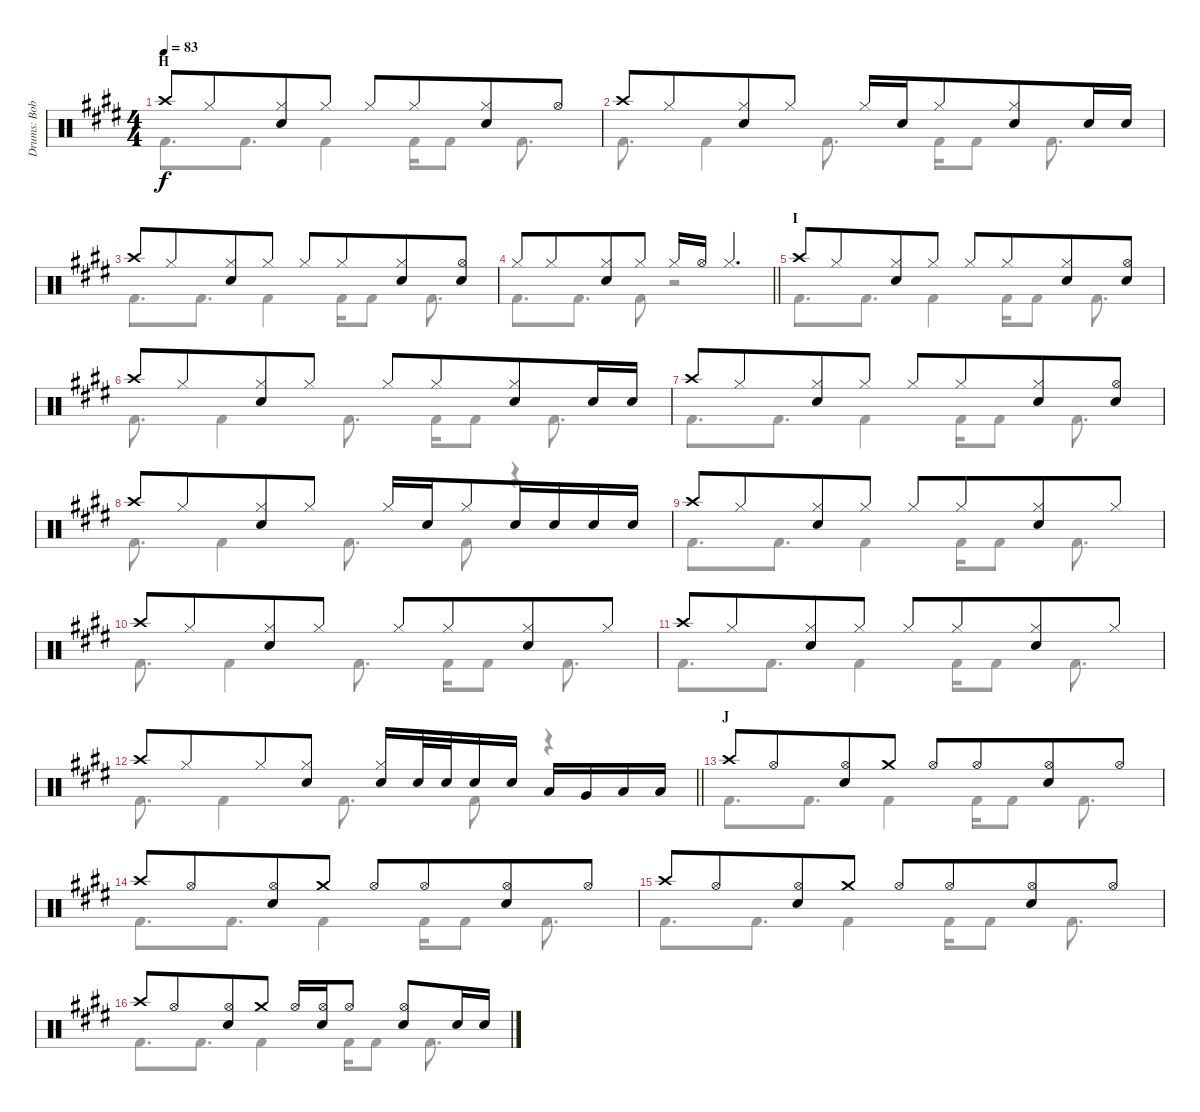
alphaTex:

\track ("Drums: Bobby" "Drums: Bob") {instrument percussion}
\staff {score}
\articulation defaults
\voice
\ts (4 4)
\section ("" "H")
\tempo 83
\clef neutral
\ks e "Crash high (hit)".8{dy f} "Hi-Hat (closed)".8{beam merge}
("Hi-Hat (closed)" "Snare (hit) 2").8 "Hi-Hat (closed)".8 "Hi-Hat (closed)".8 "Hi-Hat (closed)".8{beam merge} ("Hi-Hat (closed)" "Snare (hit) 2").8 "Hi-Hat (open)".8 |
"Crash high (hit)".8 "Hi-Hat (closed)".8{beam merge} ("Hi-Hat (closed)" "Snare (hit) 2").8 "Hi-Hat (closed)".8 "Hi-Hat (closed)".16 "Snare (hit) 2".16{beam merge} "Hi-Hat (closed)".8{beam merge} ("Hi-Hat (closed)" "Snare (hit) 2").8 "Snare (hit) 2".16 "Snare (hit) 2".16 |
"Crash high (hit)".8 "Hi-Hat (closed)".8{beam merge} ("Hi-Hat (closed)" "Snare (hit) 2").8 "Hi-Hat (closed)".8 "Hi-Hat (closed)".8 "Hi-Hat (closed)".8{beam merge} ("Hi-Hat (closed)" "Snare (hit) 2").8 ("Hi-Hat (open)" "Snare (hit) 2").8 |
\barLineRight lightlight "Hi-Hat (closed)".8 "Hi-Hat (closed)".8{beam merge}
("Hi-Hat (closed)" "Snare (hit) 2").8 "Hi-Hat (closed)".8 "Hi-Hat (closed)".16 "Hi-Hat (open)".16 "Hi-Hat (closed)".4{d} |
\section ("" "I")
"Crash high (hit)".8 "Hi-Hat (closed)".8{beam merge} ("Hi-Hat (closed)" "Snare (hit) 2").8 "Hi-Hat (closed)".8 "Hi-Hat (closed)".8 "Hi-Hat (closed)".8{beam merge} ("Hi-Hat (closed)" "Snare (hit) 2").8 ("Hi-Hat (open)" "Snare (hit) 2").8 |
"Crash high (hit)".8 "Hi-Hat (closed)".8{beam merge} ("Hi-Hat (closed)" "Snare (hit) 2").8 "Hi-Hat (closed)".8 "Hi-Hat (closed)".8 "Hi-Hat (closed)".8{beam merge} ("Hi-Hat (closed)" "Snare (hit) 2").8 "Snare (hit) 2".16 "Snare (hit) 2".16 |
"Crash high (hit)".8 "Hi-Hat (closed)".8{beam merge} ("Hi-Hat (closed)" "Snare (hit) 2").8 "Hi-Hat (closed)".8 "Hi-Hat (closed)".8 "Hi-Hat (closed)".8{beam merge} ("Hi-Hat (closed)" "Snare (hit) 2").8 ("Hi-Hat (open)" "Snare (hit) 2").8 |
"Crash high (hit)".8 "Hi-Hat (closed)".8{beam merge} ("Hi-Hat (closed)" "Snare (hit) 2").8 "Hi-Hat (closed)".8 "Hi-Hat (closed)".16 "Snare (hit) 2".16 "Hi-Hat (closed)".8{beam merge} "Snare (hit) 2".16 "Snare (hit) 2".16 "Snare (hit) 2".16 "Snare (hit) 2".16 |
"Crash high (hit)".8 "Hi-Hat (closed)".8{beam merge} ("Hi-Hat (closed)" "Snare (hit) 2").8 "Hi-Hat (closed)".8 "Hi-Hat (closed)".8 "Hi-Hat (closed)".8{beam merge} ("Hi-Hat (closed)" "Snare (hit) 2").8 "Hi-Hat (closed)".8 |
"Crash high (hit)".8 "Hi-Hat (closed)".8{beam merge} ("Hi-Hat (closed)" "Snare (hit) 2").8 "Hi-Hat (closed)".8 "Hi-Hat (closed)".8 "Hi-Hat (closed)".8{beam merge} ("Hi-Hat (closed)" "Snare (hit) 2").8 "Hi-Hat (closed)".8 |
"Crash high (hit)".8 "Hi-Hat (closed)".8{beam merge} ("Hi-Hat (closed)" "Snare (hit) 2").8 "Hi-Hat (closed)".8 "Hi-Hat (closed)".8 "Hi-Hat (closed)".8{beam merge} ("Hi-Hat (closed)" "Snare (hit) 2").8 "Hi-Hat (closed)".8 |
\barLineRight lightlight "Crash high (hit)".8 "Hi-Hat (closed)".8{beam merge} "Hi-Hat (closed)".8
("Hi-Hat (closed)" "Snare (hit) 2").8 ("Hi-Hat (closed)" "Snare (hit) 2").16 "Snare (hit) 2".32 "Snare (hit) 2".32{beam merge} "Snare (hit) 2".16 "Snare (hit) 2".16 "Low Tom (hit)".16 "Very Low Tom (hit)".16 "Low Tom (hit)".16 "Low Tom (hit)".16 |
\section ("" "J")
"Crash high (hit)".8 "Hi-Hat (open)".8{beam merge} ("Hi-Hat (open)" "Snare (hit) 2").8 "Crash medium (hit)".8 "Hi-Hat (open)".8 "Hi-Hat (open)".8{beam merge} ("Hi-Hat (open)" "Snare (hit) 2").8 "Hi-Hat (open)".8 |
"Crash high (hit)".8 "Hi-Hat (open)".8{beam merge} ("Hi-Hat (open)" "Snare (hit) 2").8 "Crash medium (hit)".8 "Hi-Hat (open)".8 "Hi-Hat (open)".8{beam merge} ("Hi-Hat (open)" "Snare (hit) 2").8 "Hi-Hat (open)".8 |
"Crash high (hit)".8 "Hi-Hat (open)".8{beam merge} ("Hi-Hat (open)" "Snare (hit) 2").8 "Crash medium (hit)".8 "Hi-Hat (open)".8 "Hi-Hat (open)".8{beam merge} ("Hi-Hat (open)" "Snare (hit) 2").8 "Hi-Hat (open)".8 |
"Crash high (hit)".8 "Hi-Hat (open)".8{beam merge} ("Hi-Hat (open)" "Snare (hit) 2").8 "Crash medium (hit)".8 "Hi-Hat (open)".16{beam merge} ("Hi-Hat (open)" "Snare (hit) 2").16 "Hi-Hat (open)".8 ("Hi-Hat (open)" "Snare (hit) 2").8 "Snare (hit) 2".16 "Snare (hit) 2".16
\voice
\clef neutral
\ottava regular
\simile none
\ks e "Kick (hit) 2".8{d dy f} "Kick (hit) 2".8{d} "Kick (hit) 2".4 "Kick (hit) 2".16 "Kick (hit) 2".8 "Kick (hit) 2".8{d}
|
"Kick (hit) 2".8{d} "Kick (hit) 2".4 "Kick (hit) 2".8{d} "Kick (hit) 2".16 "Kick (hit) 2".8 "Kick (hit) 2".8{d} |
"Kick (hit) 2".8{d} "Kick (hit) 2".8{d} "Kick (hit) 2".4 "Kick (hit) 2".16 "Kick (hit) 2".8 "Kick (hit) 2".8{d} |
\barLineRight lightlight "Kick (hit) 2".8{d} "Kick (hit) 2".8{d} "Kick (hit) 2".8
r.2 |
"Kick (hit) 2".8{d} "Kick (hit) 2".8{d} "Kick (hit) 2".4 "Kick (hit) 2".16 "Kick (hit) 2".8 "Kick (hit) 2".8{d} |
"Kick (hit) 2".8{d} "Kick (hit) 2".4 "Kick (hit) 2".8{d} "Kick (hit) 2".16 "Kick (hit) 2".8 "Kick (hit) 2".8{d} |
"Kick (hit) 2".8{d} "Kick (hit) 2".8{d} "Kick (hit) 2".4 "Kick (hit) 2".16 "Kick (hit) 2".8 "Kick (hit) 2".8{d} |
"Kick (hit) 2".8{d} "Kick (hit) 2".4 "Kick (hit) 2".8{d} "Kick (hit) 2".8 r.4 |
"Kick (hit) 2".8{d} "Kick (hit) 2".8{d} "Kick (hit) 2".4 "Kick (hit) 2".16 "Kick (hit) 2".8 "Kick (hit) 2".8{d} |
"Kick (hit) 2".8{d} "Kick (hit) 2".4 "Kick (hit) 2".8{d} "Kick (hit) 2".16 "Kick (hit) 2".8 "Kick (hit) 2".8{d} |
"Kick (hit) 2".8{d} "Kick (hit) 2".8{d} "Kick (hit) 2".4 "Kick (hit) 2".16 "Kick (hit) 2".8 "Kick (hit) 2".8{d} |
\barLineRight lightlight "Kick (hit) 2".8{d} "Kick (hit) 2".4 "Kick (hit) 2".8{d} "Kick (hit) 2".8
r.4 |
"Kick (hit) 2".8{d} "Kick (hit) 2".8{d} "Kick (hit) 2".4 "Kick (hit) 2".16 "Kick (hit) 2".8 "Kick (hit) 2".8{d} |
"Kick (hit) 2".8{d} "Kick (hit) 2".8{d} "Kick (hit) 2".4 "Kick (hit) 2".16 "Kick (hit) 2".8 "Kick (hit) 2".8{d} |
"Kick (hit) 2".8{d} "Kick (hit) 2".8{d} "Kick (hit) 2".4 "Kick (hit) 2".16 "Kick (hit) 2".8 "Kick (hit) 2".8{d} |
"Kick (hit) 2".8{d} "Kick (hit) 2".8{d} "Kick (hit) 2".4 "Kick (hit) 2".16 "Kick (hit) 2".8 "Kick (hit) 2".8{d}
